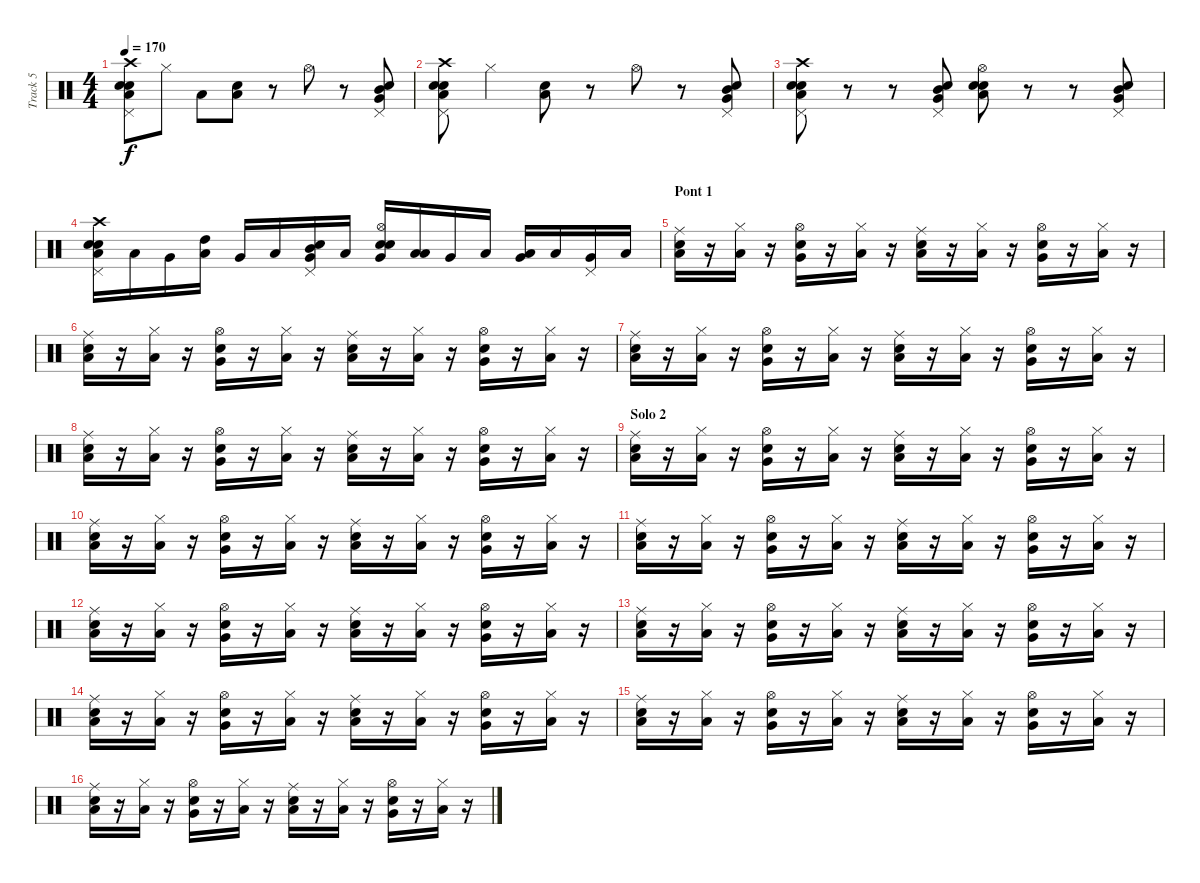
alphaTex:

\track ("Track 5" "Track 5") {instrument percussion}
\staff {score}
\articulation defaults
\ts (4 4)
\tempo 170
\clef neutral
\ks c
("Pedal Hi-Hat (hit)" "Low Tom (hit)" "Electric Snare (hit)" "Snare (hit) 2" "Crash high (hit)").8{dy f} "Hi-Hat (closed)".8 "Low Floor Tom (hit)".8 ("Electric Snare (hit)" "Low Tom (hit)").8 r.8 "Hi-Hat (open)".8 r.8 ("Pedal Hi-Hat (hit)" "Very Low Tom (hit)" "Mid Tom (hit)" "Electric Snare (hit)").8 |
("Pedal Hi-Hat (hit)" "Low Tom (hit)" "Electric Snare (hit)" "Snare (hit) 2" "Crash high (hit)").8 "Hi-Hat (closed)".4 ("Electric Snare (hit)" "Low Tom (hit)").8 r.8 "Hi-Hat (open)".8 r.8 ("Pedal Hi-Hat (hit)" "Very Low Tom (hit)" "Mid Tom (hit)" "Electric Snare (hit)").8 |
("Pedal Hi-Hat (hit)" "Low Tom (hit)" "Electric Snare (hit)" "Snare (hit) 2" "Crash high (hit)").8 r.8 r.8 ("Pedal Hi-Hat (hit)" "Very Low Tom (hit)" "Mid Tom (hit)" "Electric Snare (hit)").8 ("Low Tom (hit)" "Electric Snare (hit)" "Snare (hit) 2" "Hi-Hat (open)").8 r.8 r.8 ("Pedal Hi-Hat (hit)" "Very Low Tom (hit)" "Mid Tom (hit)" "Electric Snare (hit)").8 |
("Pedal Hi-Hat (hit)" "Low Tom (hit)" "Electric Snare (hit)" "Snare (hit) 2" "Crash high (hit)").16 "Low Floor Tom (hit)".16 "Very Low Tom (hit)".16 ("Low Floor Tom (hit)" "High Tom (hit)").16 "Very Low Tom (hit)".16 "Low Floor Tom (hit)".16 ("Pedal Hi-Hat (hit)" "Very Low Tom (hit)" "Mid Tom (hit)" "Electric Snare (hit)").16 "Low Floor Tom (hit)".16 ("Very Low Tom (hit)" "Electric Snare (hit)" "Snare (hit) 2" "Hi-Hat (open)").16 ("Low Floor Tom (hit)" "Low Tom (hit)").16 "Very Low Tom (hit)".16 "Low Floor Tom (hit)".16 ("Very Low Tom (hit)" "Low Floor Tom (hit)").16 "Low Floor Tom (hit)".16 ("Pedal Hi-Hat (hit)" "Very Low Tom (hit)").16 "Low Floor Tom (hit)".16 |
\section ("" "Pont 1")
("Ride (middle)" "Low Tom (hit)" "Snare (hit) 2").16 r.16 ("Low Tom (hit)" "Hi-Hat (closed)").16 r.16 ("Very Low Tom (hit)" "Electric Snare (hit)" "Hi-Hat (open)").16 r.16 ("Low Tom (hit)" "Hi-Hat (closed)").16 r.16 ("Ride (middle)" "Low Tom (hit)" "Snare (hit) 2").16 r.16 ("Low Tom (hit)" "Hi-Hat (closed)").16 r.16 ("Very Low Tom (hit)" "Electric Snare (hit)" "Hi-Hat (open)").16 r.16 ("Low Tom (hit)" "Hi-Hat (closed)").16 r.16 |
("Ride (middle)" "Low Tom (hit)" "Snare (hit) 2").16 r.16 ("Low Tom (hit)" "Hi-Hat (closed)").16 r.16 ("Very Low Tom (hit)" "Electric Snare (hit)" "Hi-Hat (open)").16 r.16 ("Low Tom (hit)" "Hi-Hat (closed)").16 r.16 ("Ride (middle)" "Low Tom (hit)" "Snare (hit) 2").16 r.16 ("Low Tom (hit)" "Hi-Hat (closed)").16 r.16 ("Very Low Tom (hit)" "Electric Snare (hit)" "Hi-Hat (open)").16 r.16 ("Low Tom (hit)" "Hi-Hat (closed)").16 r.16 |
("Ride (middle)" "Low Tom (hit)" "Snare (hit) 2").16 r.16 ("Low Tom (hit)" "Hi-Hat (closed)").16 r.16 ("Very Low Tom (hit)" "Electric Snare (hit)" "Hi-Hat (open)").16 r.16 ("Low Tom (hit)" "Hi-Hat (closed)").16 r.16 ("Ride (middle)" "Low Tom (hit)" "Snare (hit) 2").16 r.16 ("Low Tom (hit)" "Hi-Hat (closed)").16 r.16 ("Very Low Tom (hit)" "Electric Snare (hit)" "Hi-Hat (open)").16 r.16 ("Low Tom (hit)" "Hi-Hat (closed)").16 r.16 |
("Ride (middle)" "Low Tom (hit)" "Snare (hit) 2").16 r.16 ("Low Tom (hit)" "Hi-Hat (closed)").16 r.16 ("Very Low Tom (hit)" "Electric Snare (hit)" "Hi-Hat (open)").16 r.16 ("Low Tom (hit)" "Hi-Hat (closed)").16 r.16 ("Ride (middle)" "Low Tom (hit)" "Snare (hit) 2").16 r.16 ("Low Tom (hit)" "Hi-Hat (closed)").16 r.16 ("Very Low Tom (hit)" "Electric Snare (hit)" "Hi-Hat (open)").16 r.16 ("Low Tom (hit)" "Hi-Hat (closed)").16 r.16 |
\section ("" "Solo 2")
("Ride (middle)" "Low Tom (hit)" "Snare (hit) 2").16 r.16 ("Low Tom (hit)" "Hi-Hat (closed)").16 r.16 ("Very Low Tom (hit)" "Electric Snare (hit)" "Hi-Hat (open)").16 r.16 ("Low Tom (hit)" "Hi-Hat (closed)").16 r.16 ("Ride (middle)" "Low Tom (hit)" "Snare (hit) 2").16 r.16 ("Low Tom (hit)" "Hi-Hat (closed)").16 r.16 ("Very Low Tom (hit)" "Electric Snare (hit)" "Hi-Hat (open)").16 r.16 ("Low Tom (hit)" "Hi-Hat (closed)").16 r.16 |
("Ride (middle)" "Low Tom (hit)" "Snare (hit) 2").16 r.16 ("Low Tom (hit)" "Hi-Hat (closed)").16 r.16 ("Very Low Tom (hit)" "Electric Snare (hit)" "Hi-Hat (open)").16 r.16 ("Low Tom (hit)" "Hi-Hat (closed)").16 r.16 ("Ride (middle)" "Low Tom (hit)" "Snare (hit) 2").16 r.16 ("Low Tom (hit)" "Hi-Hat (closed)").16 r.16 ("Very Low Tom (hit)" "Electric Snare (hit)" "Hi-Hat (open)").16 r.16 ("Low Tom (hit)" "Hi-Hat (closed)").16 r.16 |
("Ride (middle)" "Low Tom (hit)" "Snare (hit) 2").16 r.16 ("Low Tom (hit)" "Hi-Hat (closed)").16 r.16 ("Very Low Tom (hit)" "Electric Snare (hit)" "Hi-Hat (open)").16 r.16 ("Low Tom (hit)" "Hi-Hat (closed)").16 r.16 ("Ride (middle)" "Low Tom (hit)" "Snare (hit) 2").16 r.16 ("Low Tom (hit)" "Hi-Hat (closed)").16 r.16 ("Very Low Tom (hit)" "Electric Snare (hit)" "Hi-Hat (open)").16 r.16 ("Low Tom (hit)" "Hi-Hat (closed)").16 r.16 |
("Ride (middle)" "Low Tom (hit)" "Snare (hit) 2").16 r.16 ("Low Tom (hit)" "Hi-Hat (closed)").16 r.16 ("Very Low Tom (hit)" "Electric Snare (hit)" "Hi-Hat (open)").16 r.16 ("Low Tom (hit)" "Hi-Hat (closed)").16 r.16 ("Ride (middle)" "Low Tom (hit)" "Snare (hit) 2").16 r.16 ("Low Tom (hit)" "Hi-Hat (closed)").16 r.16 ("Very Low Tom (hit)" "Electric Snare (hit)" "Hi-Hat (open)").16 r.16 ("Low Tom (hit)" "Hi-Hat (closed)").16 r.16 |
("Ride (middle)" "Low Tom (hit)" "Snare (hit) 2").16 r.16 ("Low Tom (hit)" "Hi-Hat (closed)").16 r.16 ("Very Low Tom (hit)" "Electric Snare (hit)" "Hi-Hat (open)").16 r.16 ("Low Tom (hit)" "Hi-Hat (closed)").16 r.16 ("Ride (middle)" "Low Tom (hit)" "Snare (hit) 2").16 r.16 ("Low Tom (hit)" "Hi-Hat (closed)").16 r.16 ("Very Low Tom (hit)" "Electric Snare (hit)" "Hi-Hat (open)").16 r.16 ("Low Tom (hit)" "Hi-Hat (closed)").16 r.16 |
("Ride (middle)" "Low Tom (hit)" "Snare (hit) 2").16 r.16 ("Low Tom (hit)" "Hi-Hat (closed)").16 r.16 ("Very Low Tom (hit)" "Electric Snare (hit)" "Hi-Hat (open)").16 r.16 ("Low Tom (hit)" "Hi-Hat (closed)").16 r.16 ("Ride (middle)" "Low Tom (hit)" "Snare (hit) 2").16 r.16 ("Low Tom (hit)" "Hi-Hat (closed)").16 r.16 ("Very Low Tom (hit)" "Electric Snare (hit)" "Hi-Hat (open)").16 r.16 ("Low Tom (hit)" "Hi-Hat (closed)").16 r.16 |
("Ride (middle)" "Low Tom (hit)" "Snare (hit) 2").16 r.16 ("Low Tom (hit)" "Hi-Hat (closed)").16 r.16 ("Very Low Tom (hit)" "Electric Snare (hit)" "Hi-Hat (open)").16 r.16 ("Low Tom (hit)" "Hi-Hat (closed)").16 r.16 ("Ride (middle)" "Low Tom (hit)" "Snare (hit) 2").16 r.16 ("Low Tom (hit)" "Hi-Hat (closed)").16 r.16 ("Very Low Tom (hit)" "Electric Snare (hit)" "Hi-Hat (open)").16 r.16 ("Low Tom (hit)" "Hi-Hat (closed)").16 r.16 |
("Ride (middle)" "Low Tom (hit)" "Snare (hit) 2").16 r.16 ("Low Tom (hit)" "Hi-Hat (closed)").16 r.16 ("Very Low Tom (hit)" "Electric Snare (hit)" "Hi-Hat (open)").16 r.16 ("Low Tom (hit)" "Hi-Hat (closed)").16 r.16 ("Ride (middle)" "Low Tom (hit)" "Snare (hit) 2").16 r.16 ("Low Tom (hit)" "Hi-Hat (closed)").16 r.16 ("Very Low Tom (hit)" "Electric Snare (hit)" "Hi-Hat (open)").16 r.16 ("Low Tom (hit)" "Hi-Hat (closed)").16 r.16
